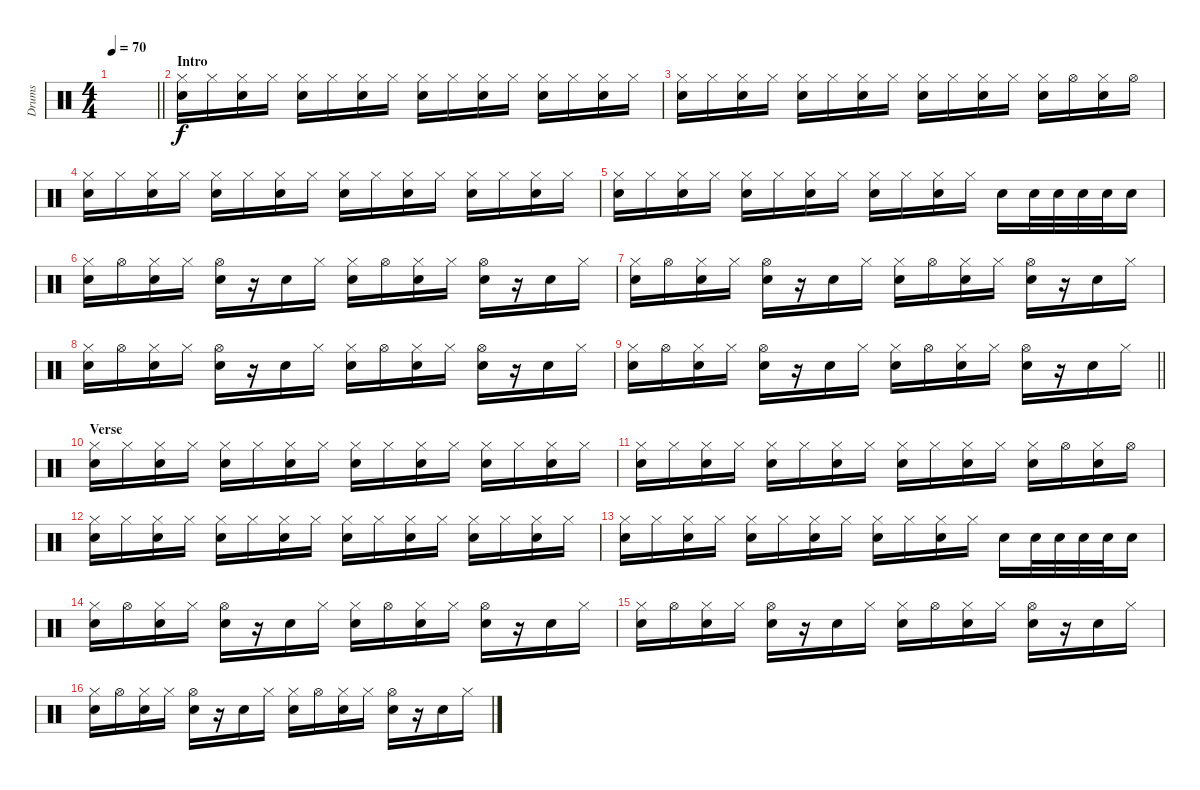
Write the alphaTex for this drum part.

\track ("Drums" "Drums") {instrument percussion}
\staff {score}
\articulation defaults
\ts (4 4)
\tempo 70
\clef neutral
\barLineRight lightlight
\ks c
|
\section ("" "Intro")
("Hi-Hat (closed)" "Electric Snare (hit)").16 "Hi-Hat (closed)".16 ("Hi-Hat (closed)" "Electric Snare (hit)").16 "Hi-Hat (closed)".16 ("Hi-Hat (closed)" "Electric Snare (hit)").16 "Hi-Hat (closed)".16 ("Hi-Hat (closed)" "Electric Snare (hit)").16 "Hi-Hat (closed)".16 ("Hi-Hat (closed)" "Electric Snare (hit)").16 "Hi-Hat (closed)".16 ("Hi-Hat (closed)" "Electric Snare (hit)").16 "Hi-Hat (closed)".16 ("Hi-Hat (closed)" "Electric Snare (hit)").16 "Hi-Hat (closed)".16 ("Hi-Hat (closed)" "Electric Snare (hit)").16 "Hi-Hat (closed)".16 |
("Hi-Hat (closed)" "Electric Snare (hit)").16 "Hi-Hat (closed)".16 ("Hi-Hat (closed)" "Electric Snare (hit)").16 "Hi-Hat (closed)".16 ("Hi-Hat (closed)" "Electric Snare (hit)").16 "Hi-Hat (closed)".16 ("Hi-Hat (closed)" "Electric Snare (hit)").16 "Hi-Hat (closed)".16 ("Hi-Hat (closed)" "Electric Snare (hit)").16 "Hi-Hat (closed)".16 ("Hi-Hat (closed)" "Electric Snare (hit)").16 "Hi-Hat (closed)".16 ("Hi-Hat (closed)" "Electric Snare (hit)").16 "Hi-Hat (open)".16 ("Hi-Hat (closed)" "Electric Snare (hit)").16 "Hi-Hat (open)".16 |
("Hi-Hat (closed)" "Electric Snare (hit)").16 "Hi-Hat (closed)".16 ("Hi-Hat (closed)" "Electric Snare (hit)").16 "Hi-Hat (closed)".16 ("Hi-Hat (closed)" "Electric Snare (hit)").16 "Hi-Hat (closed)".16 ("Hi-Hat (closed)" "Electric Snare (hit)").16 "Hi-Hat (closed)".16 ("Hi-Hat (closed)" "Electric Snare (hit)").16 "Hi-Hat (closed)".16 ("Hi-Hat (closed)" "Electric Snare (hit)").16 "Hi-Hat (closed)".16 ("Hi-Hat (closed)" "Electric Snare (hit)").16 "Hi-Hat (closed)".16 ("Hi-Hat (closed)" "Electric Snare (hit)").16 "Hi-Hat (closed)".16 |
("Hi-Hat (closed)" "Electric Snare (hit)").16 "Hi-Hat (closed)".16 ("Hi-Hat (closed)" "Electric Snare (hit)").16 "Hi-Hat (closed)".16 ("Hi-Hat (closed)" "Electric Snare (hit)").16 "Hi-Hat (closed)".16 ("Hi-Hat (closed)" "Electric Snare (hit)").16 "Hi-Hat (closed)".16 ("Hi-Hat (closed)" "Electric Snare (hit)").16 "Hi-Hat (closed)".16 ("Hi-Hat (closed)" "Electric Snare (hit)").16 "Hi-Hat (closed)".16 "Electric Snare (hit)".16 "Electric Snare (hit)".32 "Electric Snare (hit)".32 "Electric Snare (hit)".32 "Electric Snare (hit)".32 "Electric Snare (hit)".16 |
("Hi-Hat (closed)" "Electric Snare (hit)").16 "Hi-Hat (open)".16 ("Hi-Hat (closed)" "Electric Snare (hit)").16 "Hi-Hat (closed)".16 ("Hi-Hat (open)" "Electric Snare (hit)").16 r.16 "Electric Snare (hit)".16 "Hi-Hat (closed)".16 ("Hi-Hat (closed)" "Electric Snare (hit)").16 "Hi-Hat (open)".16 ("Hi-Hat (closed)" "Electric Snare (hit)").16 "Hi-Hat (closed)".16 ("Hi-Hat (open)" "Electric Snare (hit)").16 r.16 "Electric Snare (hit)".16 "Hi-Hat (closed)".16 |
("Hi-Hat (closed)" "Electric Snare (hit)").16 "Hi-Hat (open)".16 ("Hi-Hat (closed)" "Electric Snare (hit)").16 "Hi-Hat (closed)".16 ("Hi-Hat (open)" "Electric Snare (hit)").16 r.16 "Electric Snare (hit)".16 "Hi-Hat (closed)".16 ("Hi-Hat (closed)" "Electric Snare (hit)").16 "Hi-Hat (open)".16 ("Hi-Hat (closed)" "Electric Snare (hit)").16 "Hi-Hat (closed)".16 ("Hi-Hat (open)" "Electric Snare (hit)").16 r.16 "Electric Snare (hit)".16 "Hi-Hat (closed)".16 |
("Hi-Hat (closed)" "Electric Snare (hit)").16 "Hi-Hat (open)".16 ("Hi-Hat (closed)" "Electric Snare (hit)").16 "Hi-Hat (closed)".16 ("Hi-Hat (open)" "Electric Snare (hit)").16 r.16 "Electric Snare (hit)".16 "Hi-Hat (closed)".16 ("Hi-Hat (closed)" "Electric Snare (hit)").16 "Hi-Hat (open)".16 ("Hi-Hat (closed)" "Electric Snare (hit)").16 "Hi-Hat (closed)".16 ("Hi-Hat (open)" "Electric Snare (hit)").16 r.16 "Electric Snare (hit)".16 "Hi-Hat (closed)".16 |
\barLineRight lightlight
("Hi-Hat (closed)" "Electric Snare (hit)").16 "Hi-Hat (open)".16 ("Hi-Hat (closed)" "Electric Snare (hit)").16 "Hi-Hat (closed)".16 ("Hi-Hat (open)" "Electric Snare (hit)").16 r.16 "Electric Snare (hit)".16 "Hi-Hat (closed)".16 ("Hi-Hat (closed)" "Electric Snare (hit)").16 "Hi-Hat (open)".16 ("Hi-Hat (closed)" "Electric Snare (hit)").16 "Hi-Hat (closed)".16 ("Hi-Hat (open)" "Electric Snare (hit)").16 r.16 "Electric Snare (hit)".16 "Hi-Hat (closed)".16 |
\section ("" "Verse")
("Hi-Hat (closed)" "Electric Snare (hit)").16 "Hi-Hat (closed)".16 ("Hi-Hat (closed)" "Electric Snare (hit)").16 "Hi-Hat (closed)".16 ("Hi-Hat (closed)" "Electric Snare (hit)").16 "Hi-Hat (closed)".16 ("Hi-Hat (closed)" "Electric Snare (hit)").16 "Hi-Hat (closed)".16 ("Hi-Hat (closed)" "Electric Snare (hit)").16 "Hi-Hat (closed)".16 ("Hi-Hat (closed)" "Electric Snare (hit)").16 "Hi-Hat (closed)".16 ("Hi-Hat (closed)" "Electric Snare (hit)").16 "Hi-Hat (closed)".16 ("Hi-Hat (closed)" "Electric Snare (hit)").16 "Hi-Hat (closed)".16 |
("Hi-Hat (closed)" "Electric Snare (hit)").16 "Hi-Hat (closed)".16 ("Hi-Hat (closed)" "Electric Snare (hit)").16 "Hi-Hat (closed)".16 ("Hi-Hat (closed)" "Electric Snare (hit)").16 "Hi-Hat (closed)".16 ("Hi-Hat (closed)" "Electric Snare (hit)").16 "Hi-Hat (closed)".16 ("Hi-Hat (closed)" "Electric Snare (hit)").16 "Hi-Hat (closed)".16 ("Hi-Hat (closed)" "Electric Snare (hit)").16 "Hi-Hat (closed)".16 ("Hi-Hat (closed)" "Electric Snare (hit)").16 "Hi-Hat (open)".16 ("Hi-Hat (closed)" "Electric Snare (hit)").16 "Hi-Hat (open)".16 |
("Hi-Hat (closed)" "Electric Snare (hit)").16 "Hi-Hat (closed)".16 ("Hi-Hat (closed)" "Electric Snare (hit)").16 "Hi-Hat (closed)".16 ("Hi-Hat (closed)" "Electric Snare (hit)").16 "Hi-Hat (closed)".16 ("Hi-Hat (closed)" "Electric Snare (hit)").16 "Hi-Hat (closed)".16 ("Hi-Hat (closed)" "Electric Snare (hit)").16 "Hi-Hat (closed)".16 ("Hi-Hat (closed)" "Electric Snare (hit)").16 "Hi-Hat (closed)".16 ("Hi-Hat (closed)" "Electric Snare (hit)").16 "Hi-Hat (closed)".16 ("Hi-Hat (closed)" "Electric Snare (hit)").16 "Hi-Hat (closed)".16 |
("Hi-Hat (closed)" "Electric Snare (hit)").16 "Hi-Hat (closed)".16 ("Hi-Hat (closed)" "Electric Snare (hit)").16 "Hi-Hat (closed)".16 ("Hi-Hat (closed)" "Electric Snare (hit)").16 "Hi-Hat (closed)".16 ("Hi-Hat (closed)" "Electric Snare (hit)").16 "Hi-Hat (closed)".16 ("Hi-Hat (closed)" "Electric Snare (hit)").16 "Hi-Hat (closed)".16 ("Hi-Hat (closed)" "Electric Snare (hit)").16 "Hi-Hat (closed)".16 "Electric Snare (hit)".16 "Electric Snare (hit)".32 "Electric Snare (hit)".32 "Electric Snare (hit)".32 "Electric Snare (hit)".32 "Electric Snare (hit)".16 |
("Hi-Hat (closed)" "Electric Snare (hit)").16 "Hi-Hat (open)".16 ("Hi-Hat (closed)" "Electric Snare (hit)").16 "Hi-Hat (closed)".16 ("Hi-Hat (open)" "Electric Snare (hit)").16 r.16 "Electric Snare (hit)".16 "Hi-Hat (closed)".16 ("Hi-Hat (closed)" "Electric Snare (hit)").16 "Hi-Hat (open)".16 ("Hi-Hat (closed)" "Electric Snare (hit)").16 "Hi-Hat (closed)".16 ("Hi-Hat (open)" "Electric Snare (hit)").16 r.16 "Electric Snare (hit)".16 "Hi-Hat (closed)".16 |
("Hi-Hat (closed)" "Electric Snare (hit)").16 "Hi-Hat (open)".16 ("Hi-Hat (closed)" "Electric Snare (hit)").16 "Hi-Hat (closed)".16 ("Hi-Hat (open)" "Electric Snare (hit)").16 r.16 "Electric Snare (hit)".16 "Hi-Hat (closed)".16 ("Hi-Hat (closed)" "Electric Snare (hit)").16 "Hi-Hat (open)".16 ("Hi-Hat (closed)" "Electric Snare (hit)").16 "Hi-Hat (closed)".16 ("Hi-Hat (open)" "Electric Snare (hit)").16 r.16 "Electric Snare (hit)".16 "Hi-Hat (closed)".16 |
("Hi-Hat (closed)" "Electric Snare (hit)").16 "Hi-Hat (open)".16 ("Hi-Hat (closed)" "Electric Snare (hit)").16 "Hi-Hat (closed)".16 ("Hi-Hat (open)" "Electric Snare (hit)").16 r.16 "Electric Snare (hit)".16 "Hi-Hat (closed)".16 ("Hi-Hat (closed)" "Electric Snare (hit)").16 "Hi-Hat (open)".16 ("Hi-Hat (closed)" "Electric Snare (hit)").16 "Hi-Hat (closed)".16 ("Hi-Hat (open)" "Electric Snare (hit)").16 r.16 "Electric Snare (hit)".16 "Hi-Hat (closed)".16
